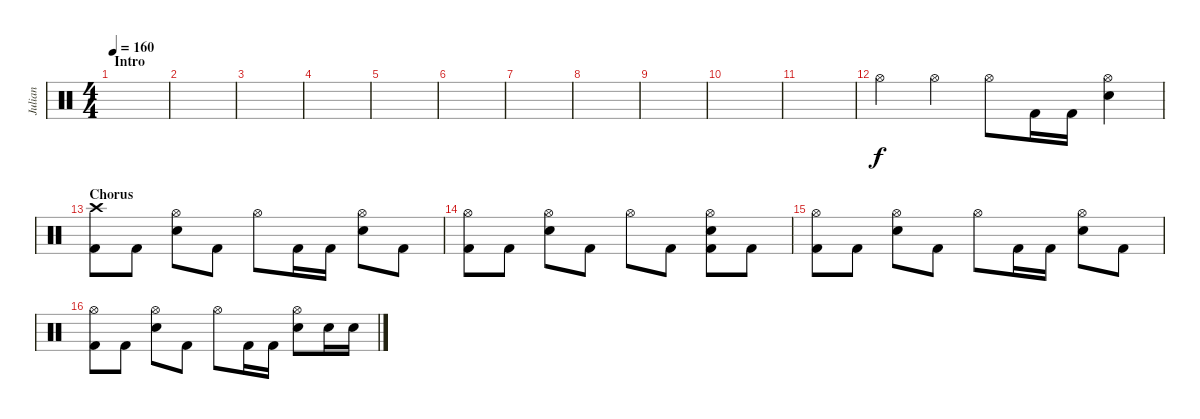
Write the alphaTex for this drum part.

\track ("Julian" "Julian") {instrument percussion}
\staff {score}
\articulation defaults
\ts (4 4)
\section ("" "Intro")
\tempo 160
\clef neutral
\ks c
|
|
|
|
|
|
|
|
|
|
|
"Hi-Hat (open)".4 "Hi-Hat (open)".4 "Hi-Hat (open)".8 "Kick (hit) 2".16 "Kick (hit) 2".16 ("Hi-Hat (open)" "Electric Snare (hit)").4 |
\section ("" "Chorus")
("Crash high (hit)" "Kick (hit) 2").8 "Kick (hit) 2".8 ("Hi-Hat (open)" "Electric Snare (hit)").8 "Kick (hit) 2".8 "Hi-Hat (open)".8 "Kick (hit) 2".16 "Kick (hit) 2".16 ("Hi-Hat (open)" "Electric Snare (hit)").8 "Kick (hit) 2".8 |
("Hi-Hat (open)" "Kick (hit) 2").8 "Kick (hit) 2".8 ("Hi-Hat (open)" "Electric Snare (hit)").8 "Kick (hit) 2".8 "Hi-Hat (open)".8 "Kick (hit) 2".8 ("Hi-Hat (open)" "Electric Snare (hit)" "Kick (hit) 2").8 "Kick (hit) 2".8 |
("Hi-Hat (open)" "Kick (hit) 2").8 "Kick (hit) 2".8 ("Hi-Hat (open)" "Electric Snare (hit)").8 "Kick (hit) 2".8 "Hi-Hat (open)".8 "Kick (hit) 2".16 "Kick (hit) 2".16 ("Hi-Hat (open)" "Electric Snare (hit)").8 "Kick (hit) 2".8 |
("Hi-Hat (open)" "Kick (hit) 2").8 "Kick (hit) 2".8 ("Hi-Hat (open)" "Electric Snare (hit)").8 "Kick (hit) 2".8 "Hi-Hat (open)".8 "Kick (hit) 2".16 "Kick (hit) 2".16 ("Hi-Hat (open)" "Electric Snare (hit)").8 "Electric Snare (hit)".16 "Electric Snare (hit)".16
